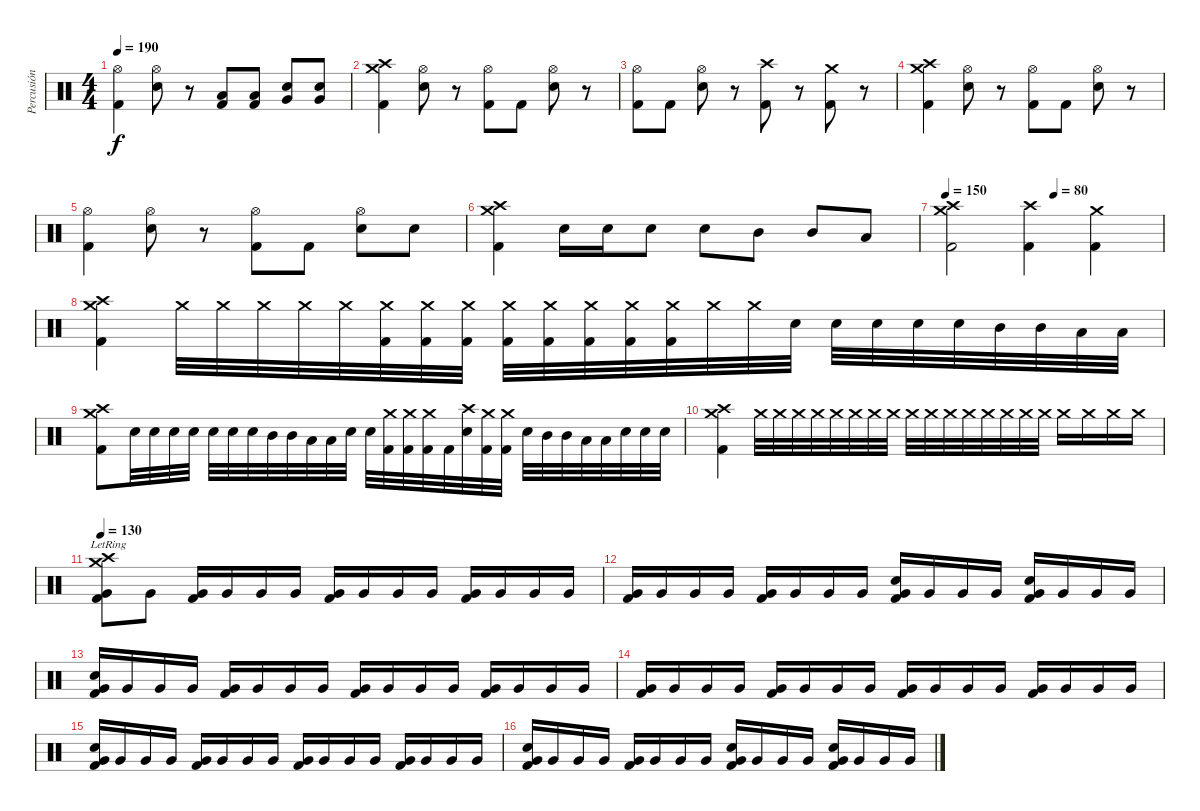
\track ("Percusión" "Percusión") {instrument percussion}
\staff {score}
\articulation defaults
\ts (4 4)
\tempo 190
\clef neutral
\ks c
("Hi-Hat (open)" "Kick (hit) 2").4{dy f} ("Hi-Hat (open)" "Electric Snare (hit)").8 r.8 ("Low Tom (hit)" "Kick (hit) 2").8 ("Low Tom (hit)" "Kick (hit) 2").8 ("Very Low Tom (hit)" "Electric Snare (hit)").8 ("Very Low Tom (hit)" "Electric Snare (hit)").8 |
("Crash high (hit)" "Crash medium (hit)" "Kick (hit) 2").4 ("Hi-Hat (open)" "Electric Snare (hit)").8 r.8 ("Hi-Hat (open)" "Kick (hit) 2").8 "Kick (hit) 2".8 ("Hi-Hat (open)" "Electric Snare (hit)").8 r.8 |
("Hi-Hat (open)" "Kick (hit) 2").8 "Kick (hit) 2".8 ("Hi-Hat (open)" "Electric Snare (hit)").8 r.8 ("Crash high (hit)" "Kick (hit) 2").8 r.8 ("Crash medium (hit)" "Kick (hit) 2").8 r.8 |
("Crash high (hit)" "Crash medium (hit)" "Kick (hit) 2").4 ("Hi-Hat (open)" "Electric Snare (hit)").8 r.8 ("Hi-Hat (open)" "Kick (hit) 2").8 "Kick (hit) 2".8 ("Hi-Hat (open)" "Electric Snare (hit)").8 r.8 |
("Hi-Hat (open)" "Kick (hit) 2").4 ("Hi-Hat (open)" "Electric Snare (hit)").8 r.8 ("Hi-Hat (open)" "Kick (hit) 2").8 "Kick (hit) 2".8 ("Hi-Hat (open)" "Electric Snare (hit)").8 "Electric Snare (hit)".8 |
("Crash high (hit)" "Crash medium (hit)" "Kick (hit) 2").4 "Electric Snare (hit)".16 "Electric Snare (hit)".16 "Electric Snare (hit)".8 "Electric Snare (hit)".8 "Mid Tom (hit)".8 "Mid Tom (hit)".8 "Low Tom (hit)".8 |
\tempo 150
\tempo (80 0.5)
("Crash high (hit)" "Crash medium (hit)" "Kick (hit) 2").2 ("Crash high (hit)" "Kick (hit) 2").4 ("Crash medium (hit)" "Kick (hit) 2").4 |
("Crash high (hit)" "Crash medium (hit)" "Kick (hit) 2").4 "Crash medium (hit)".32 "Crash medium (hit)".32 "Crash medium (hit)".32 "Crash medium (hit)".32 "Crash medium (hit)".32 ("Crash medium (hit)" "Kick (hit) 2").32 ("Crash medium (hit)" "Kick (hit) 2").32 ("Crash medium (hit)" "Kick (hit) 2").32 ("Crash medium (hit)" "Kick (hit) 2").32 ("Crash medium (hit)" "Kick (hit) 2").32 ("Crash medium (hit)" "Kick (hit) 2").32 ("Crash medium (hit)" "Kick (hit) 2").32 ("Crash medium (hit)" "Kick (hit) 2").32 "Crash medium (hit)".32 "Crash medium (hit)".32 "Electric Snare (hit)".32 "Electric Snare (hit)".32 "Electric Snare (hit)".32 "Electric Snare (hit)".32 "Electric Snare (hit)".32 "Mid Tom (hit)".32 "Mid Tom (hit)".32 "Low Tom (hit)".32 "Low Tom (hit)".32 |
("Crash high (hit)" "Crash medium (hit)" "Kick (hit) 2").8 "Electric Snare (hit)".32 "Electric Snare (hit)".32 "Electric Snare (hit)".32 "Electric Snare (hit)".32 "Electric Snare (hit)".32 "Electric Snare (hit)".32 "Electric Snare (hit)".32 "Mid Tom (hit)".32 "Mid Tom (hit)".32 "Low Tom (hit)".32 "Low Tom (hit)".32 "Electric Snare (hit)".32 "Electric Snare (hit)".32 ("Crash medium (hit)" "Kick (hit) 2").32 ("Crash medium (hit)" "Kick (hit) 2").32 ("Crash medium (hit)" "Kick (hit) 2").32 "Kick (hit) 2".32 ("Crash high (hit)" "Electric Snare (hit)").32 ("Crash medium (hit)" "Kick (hit) 2").32 ("Crash medium (hit)" "Kick (hit) 2").32 "Electric Snare (hit)".32 "Mid Tom (hit)".32 "Mid Tom (hit)".32 "Low Tom (hit)".32 "Low Tom (hit)".32 "Electric Snare (hit)".32 "Electric Snare (hit)".32 "Electric Snare (hit)".32 |
("Crash high (hit)" "Crash medium (hit)" "Kick (hit) 2").4 "Crash medium (hit)".32 "Crash medium (hit)".32 "Crash medium (hit)".32 "Crash medium (hit)".32 "Crash medium (hit)".32 "Crash medium (hit)".32 "Crash medium (hit)".32 "Crash medium (hit)".32 "Crash medium (hit)".32 "Crash medium (hit)".32 "Crash medium (hit)".32 "Crash medium (hit)".32 "Crash medium (hit)".32 "Crash medium (hit)".32 "Crash medium (hit)".32 "Crash medium (hit)".32 "Crash medium (hit)".16 "Crash medium (hit)".16 "Crash medium (hit)".16 "Crash medium (hit)".16 |
\tempo 130
("Crash high (hit)"{lr} "Crash medium (hit)"{lr} "Very Low Tom (hit)" "Kick (hit) 2").8 "Very Low Tom (hit)".8 ("Very Low Tom (hit)" "Kick (hit) 2").16 "Very Low Tom (hit)".16 "Very Low Tom (hit)".16 "Very Low Tom (hit)".16 ("Very Low Tom (hit)" "Kick (hit) 2").16 "Very Low Tom (hit)".16 "Very Low Tom (hit)".16 "Very Low Tom (hit)".16 ("Very Low Tom (hit)" "Kick (hit) 2").16 "Very Low Tom (hit)".16 "Very Low Tom (hit)".16 "Very Low Tom (hit)".16 |
("Very Low Tom (hit)" "Kick (hit) 2").16 "Very Low Tom (hit)".16 "Very Low Tom (hit)".16 "Very Low Tom (hit)".16 ("Very Low Tom (hit)" "Kick (hit) 2").16 "Very Low Tom (hit)".16 "Very Low Tom (hit)".16 "Very Low Tom (hit)".16 ("Electric Snare (hit)" "Very Low Tom (hit)" "Kick (hit) 2").16 "Very Low Tom (hit)".16 "Very Low Tom (hit)".16 "Very Low Tom (hit)".16 ("Electric Snare (hit)" "Very Low Tom (hit)" "Kick (hit) 2").16 "Very Low Tom (hit)".16 "Very Low Tom (hit)".16 "Very Low Tom (hit)".16 |
("Electric Snare (hit)" "Very Low Tom (hit)" "Kick (hit) 2").16 "Very Low Tom (hit)".16 "Very Low Tom (hit)".16 "Very Low Tom (hit)".16 ("Very Low Tom (hit)" "Kick (hit) 2").16 "Very Low Tom (hit)".16 "Very Low Tom (hit)".16 "Very Low Tom (hit)".16 ("Very Low Tom (hit)" "Kick (hit) 2").16 "Very Low Tom (hit)".16 "Very Low Tom (hit)".16 "Very Low Tom (hit)".16 ("Very Low Tom (hit)" "Kick (hit) 2").16 "Very Low Tom (hit)".16 "Very Low Tom (hit)".16 "Very Low Tom (hit)".16 |
("Very Low Tom (hit)" "Kick (hit) 2").16 "Very Low Tom (hit)".16 "Very Low Tom (hit)".16 "Very Low Tom (hit)".16 ("Very Low Tom (hit)" "Kick (hit) 2").16 "Very Low Tom (hit)".16 "Very Low Tom (hit)".16 "Very Low Tom (hit)".16 ("Very Low Tom (hit)" "Kick (hit) 2").16 "Very Low Tom (hit)".16 "Very Low Tom (hit)".16 "Very Low Tom (hit)".16 ("Very Low Tom (hit)" "Kick (hit) 2").16 "Very Low Tom (hit)".16 "Very Low Tom (hit)".16 "Very Low Tom (hit)".16 |
("Electric Snare (hit)" "Very Low Tom (hit)" "Kick (hit) 2").16 "Very Low Tom (hit)".16 "Very Low Tom (hit)".16 "Very Low Tom (hit)".16 ("Very Low Tom (hit)" "Kick (hit) 2").16 "Very Low Tom (hit)".16 "Very Low Tom (hit)".16 "Very Low Tom (hit)".16 ("Very Low Tom (hit)" "Kick (hit) 2").16 "Very Low Tom (hit)".16 "Very Low Tom (hit)".16 "Very Low Tom (hit)".16 ("Very Low Tom (hit)" "Kick (hit) 2").16 "Very Low Tom (hit)".16 "Very Low Tom (hit)".16 "Very Low Tom (hit)".16 |
("Electric Snare (hit)" "Very Low Tom (hit)" "Kick (hit) 2").16 "Very Low Tom (hit)".16 "Very Low Tom (hit)".16 "Very Low Tom (hit)".16 ("Very Low Tom (hit)" "Kick (hit) 2").16 "Very Low Tom (hit)".16 "Very Low Tom (hit)".16 "Very Low Tom (hit)".16 ("Electric Snare (hit)" "Very Low Tom (hit)" "Kick (hit) 2").16 "Very Low Tom (hit)".16 "Very Low Tom (hit)".16 "Very Low Tom (hit)".16 ("Electric Snare (hit)" "Very Low Tom (hit)" "Kick (hit) 2").16 "Very Low Tom (hit)".16 "Very Low Tom (hit)".16 "Very Low Tom (hit)".16
